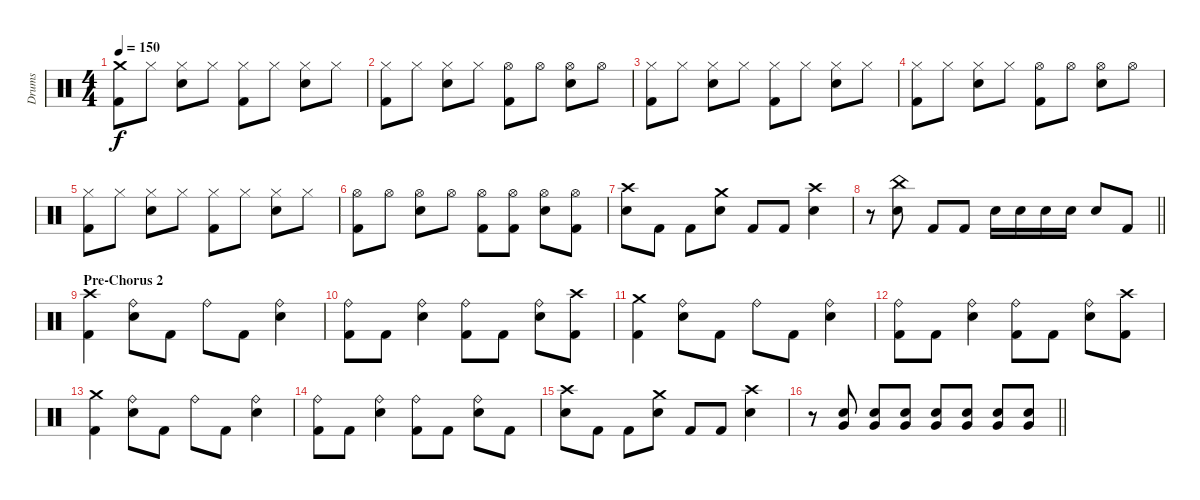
\track ("Drums" "Drums") {instrument percussion}
\staff {score}
\articulation defaults
\ts (4 4)
\tempo 150
\clef neutral
\ks c
("Crash medium (hit)" "Kick (hit) 2").8{dy f} "Hi-Hat (closed)".8 ("Hi-Hat (closed)" "Electric Snare (hit)").8 "Hi-Hat (closed)".8 ("Hi-Hat (closed)" "Kick (hit) 2").8 "Hi-Hat (closed)".8 ("Hi-Hat (closed)" "Electric Snare (hit)").8 "Hi-Hat (closed)".8 |
("Hi-Hat (closed)" "Kick (hit) 2").8 "Hi-Hat (closed)".8 ("Hi-Hat (closed)" "Electric Snare (hit)").8 "Hi-Hat (closed)".8 ("Hi-Hat (open)" "Kick (hit) 2").8 "Hi-Hat (open)".8 ("Hi-Hat (open)" "Electric Snare (hit)").8 "Hi-Hat (open)".8 |
("Hi-Hat (closed)" "Kick (hit) 2").8 "Hi-Hat (closed)".8 ("Hi-Hat (closed)" "Electric Snare (hit)").8 "Hi-Hat (closed)".8 ("Hi-Hat (closed)" "Kick (hit) 2").8 "Hi-Hat (closed)".8 ("Hi-Hat (closed)" "Electric Snare (hit)").8 "Hi-Hat (closed)".8 |
("Hi-Hat (closed)" "Kick (hit) 2").8 "Hi-Hat (closed)".8 ("Hi-Hat (closed)" "Electric Snare (hit)").8 "Hi-Hat (closed)".8 ("Hi-Hat (open)" "Kick (hit) 2").8 "Hi-Hat (open)".8 ("Hi-Hat (open)" "Electric Snare (hit)").8 "Hi-Hat (open)".8 |
("Hi-Hat (closed)" "Kick (hit) 2").8 "Hi-Hat (closed)".8 ("Hi-Hat (closed)" "Electric Snare (hit)").8 "Hi-Hat (closed)".8 ("Hi-Hat (closed)" "Kick (hit) 2").8 "Hi-Hat (closed)".8 ("Hi-Hat (closed)" "Electric Snare (hit)").8 "Hi-Hat (closed)".8 |
("Hi-Hat (open)" "Kick (hit) 2").8 "Hi-Hat (open)".8 ("Hi-Hat (open)" "Electric Snare (hit)").8 "Hi-Hat (open)".8 ("Hi-Hat (open)" "Kick (hit) 2").8 ("Hi-Hat (open)" "Kick (hit) 2").8 ("Hi-Hat (open)" "Electric Snare (hit)").8 ("Hi-Hat (open)" "Kick (hit) 2").8 |
("Crash high (hit)" "Electric Snare (hit)").8 "Kick (hit) 2".8 "Kick (hit) 2".8 ("Crash medium (hit)" "Electric Snare (hit)").8 "Kick (hit) 2".8 "Kick (hit) 2".8 ("Crash high (hit)" "Electric Snare (hit)").4 |
\barLineRight lightlight
r.8 ("China (hit)" "Electric Snare (hit)").8 "Kick (hit) 2".8 "Kick (hit) 2".8 "Electric Snare (hit)".16 "Electric Snare (hit)".16 "Electric Snare (hit)".16 "Electric Snare (hit)".16 "Electric Snare (hit)".8 "Kick (hit) 2".8 |
\section ("" "Pre-Chorus 2")
("Crash high (hit)" "Kick (hit) 2").4 ("Ride (bell)" "Electric Snare (hit)").8 "Kick (hit) 2".8 "Ride (bell)".8 "Kick (hit) 2".8 ("Ride (bell)" "Electric Snare (hit)").4 |
("Ride (bell)" "Kick (hit) 2").8 "Kick (hit) 2".8 ("Ride (bell)" "Electric Snare (hit)").4 ("Ride (bell)" "Kick (hit) 2").8 "Kick (hit) 2".8 ("Ride (bell)" "Electric Snare (hit)").8 ("Crash high (hit)" "Kick (hit) 2").8 |
("Crash medium (hit)" "Kick (hit) 2").4 ("Ride (bell)" "Electric Snare (hit)").8 "Kick (hit) 2".8 "Ride (bell)".8 "Kick (hit) 2".8 ("Ride (bell)" "Electric Snare (hit)").4 |
("Ride (bell)" "Kick (hit) 2").8 "Kick (hit) 2".8 ("Ride (bell)" "Electric Snare (hit)").4 ("Ride (bell)" "Kick (hit) 2").8 "Kick (hit) 2".8 ("Ride (bell)" "Electric Snare (hit)").8 ("Crash high (hit)" "Kick (hit) 2").8 |
("Crash medium (hit)" "Kick (hit) 2").4 ("Ride (bell)" "Electric Snare (hit)").8 "Kick (hit) 2".8 "Ride (bell)".8 "Kick (hit) 2".8 ("Ride (bell)" "Electric Snare (hit)").4 |
("Ride (bell)" "Kick (hit) 2").8 "Kick (hit) 2".8 ("Ride (bell)" "Electric Snare (hit)").4 ("Ride (bell)" "Kick (hit) 2").8 "Kick (hit) 2".8 ("Ride (bell)" "Electric Snare (hit)").8 "Kick (hit) 2".8 |
("Crash high (hit)" "Electric Snare (hit)").8 "Kick (hit) 2".8 "Kick (hit) 2".8 ("Crash medium (hit)" "Electric Snare (hit)").8 "Kick (hit) 2".8 "Kick (hit) 2".8 ("Crash high (hit)" "Electric Snare (hit)").4 |
\barLineRight lightlight
r.8{volume 9} ("Very Low Tom (hit)" "Electric Snare (hit)").8{volume 13} ("Very Low Tom (hit)" "Electric Snare (hit)").8 ("Very Low Tom (hit)" "Electric Snare (hit)").8 ("Very Low Tom (hit)" "Electric Snare (hit)").8 ("Very Low Tom (hit)" "Electric Snare (hit)").8 ("Very Low Tom (hit)" "Electric Snare (hit)").8 ("Very Low Tom (hit)" "Electric Snare (hit)").8
